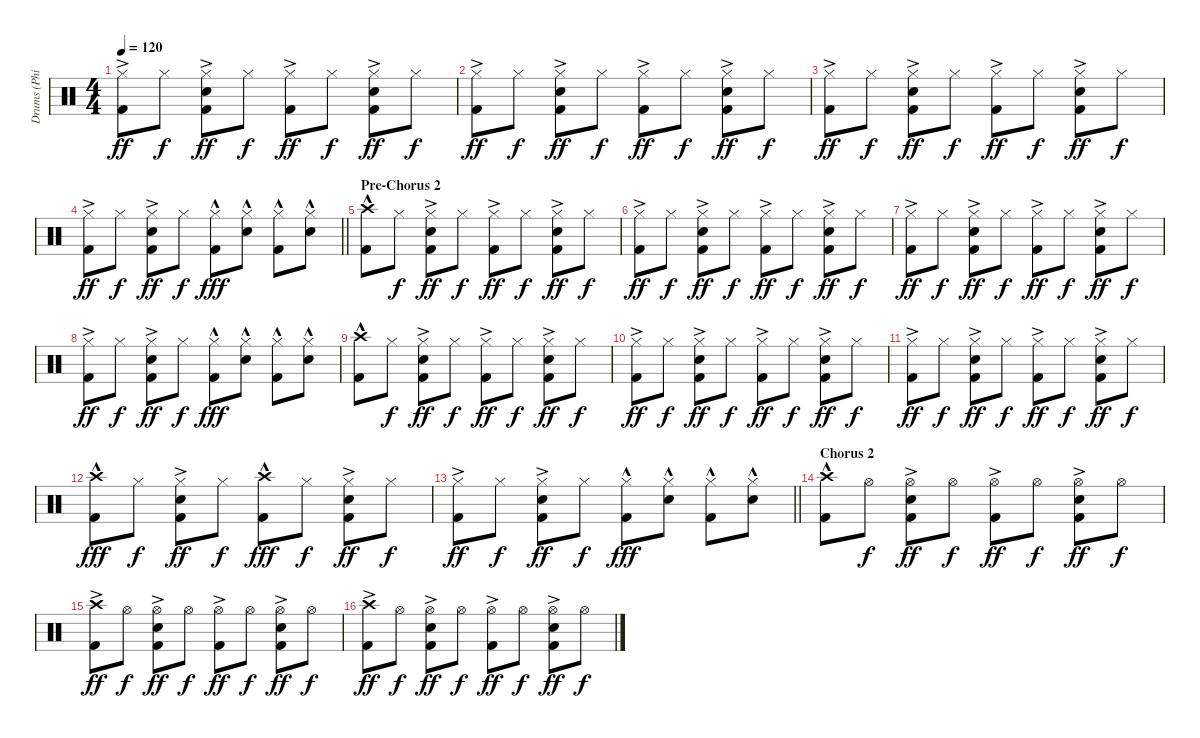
\track ("Drums (Phil Rudd)" "Drums (Phi") {instrument percussion}
\staff {score}
\articulation defaults
\ts (4 4)
\tempo 120
\clef neutral
\ks c
("Hi-Hat (closed)"{ac} "Kick (hit) 2").8{dy ff} "Hi-Hat (closed)".8{dy f} ("Kick (hit) 2" "Snare (hit) 2" "Hi-Hat (closed)"{ac}).8{dy ff} "Hi-Hat (closed)".8{dy f} ("Kick (hit) 2" "Hi-Hat (closed)"{ac}).8{dy ff} "Hi-Hat (closed)".8{dy f} ("Kick (hit) 2" "Snare (hit) 2" "Hi-Hat (closed)"{ac}).8{dy ff} "Hi-Hat (closed)".8{dy f} |
("Hi-Hat (closed)"{ac} "Kick (hit) 2").8{dy ff} "Hi-Hat (closed)".8{dy f} ("Kick (hit) 2" "Snare (hit) 2" "Hi-Hat (closed)"{ac}).8{dy ff} "Hi-Hat (closed)".8{dy f} ("Kick (hit) 2" "Hi-Hat (closed)"{ac}).8{dy ff} "Hi-Hat (closed)".8{dy f} ("Kick (hit) 2" "Snare (hit) 2" "Hi-Hat (closed)"{ac}).8{dy ff} "Hi-Hat (closed)".8{dy f} |
("Hi-Hat (closed)"{ac} "Kick (hit) 2").8{dy ff} "Hi-Hat (closed)".8{dy f} ("Kick (hit) 2" "Snare (hit) 2" "Hi-Hat (closed)"{ac}).8{dy ff} "Hi-Hat (closed)".8{dy f} ("Kick (hit) 2" "Hi-Hat (closed)"{ac}).8{dy ff} "Hi-Hat (closed)".8{dy f} ("Kick (hit) 2" "Snare (hit) 2" "Hi-Hat (closed)"{ac}).8{dy ff} "Hi-Hat (closed)".8{dy f} |
\barLineRight lightlight
("Hi-Hat (closed)"{ac} "Kick (hit) 2").8{dy ff} "Hi-Hat (closed)".8{dy f} ("Kick (hit) 2" "Snare (hit) 2" "Hi-Hat (closed)"{ac}).8{dy ff} "Hi-Hat (closed)".8{dy f} ("Kick (hit) 2" "Hi-Hat (closed)"{hac}).8{dy fff} ("Snare (hit) 2" "Hi-Hat (closed)"{hac}).8 ("Kick (hit) 2" "Hi-Hat (closed)"{hac}).8 ("Snare (hit) 2" "Hi-Hat (closed)"{hac}).8 |
\section ("" "Pre-Chorus 2")
("Kick (hit) 2" "Crash high (hit)"{hac}).8 "Hi-Hat (closed)".8{dy f} ("Kick (hit) 2" "Snare (hit) 2" "Hi-Hat (closed)"{ac}).8{dy ff} "Hi-Hat (closed)".8{dy f} ("Hi-Hat (closed)"{ac} "Kick (hit) 2").8{dy ff} "Hi-Hat (closed)".8{dy f} ("Kick (hit) 2" "Snare (hit) 2" "Hi-Hat (closed)"{ac}).8{dy ff} "Hi-Hat (closed)".8{dy f} |
("Hi-Hat (closed)"{ac} "Kick (hit) 2").8{dy ff} "Hi-Hat (closed)".8{dy f} ("Kick (hit) 2" "Snare (hit) 2" "Hi-Hat (closed)"{ac}).8{dy ff} "Hi-Hat (closed)".8{dy f} ("Kick (hit) 2" "Hi-Hat (closed)"{ac}).8{dy ff} "Hi-Hat (closed)".8{dy f} ("Kick (hit) 2" "Snare (hit) 2" "Hi-Hat (closed)"{ac}).8{dy ff} "Hi-Hat (closed)".8{dy f} |
("Hi-Hat (closed)"{ac} "Kick (hit) 2").8{dy ff} "Hi-Hat (closed)".8{dy f} ("Kick (hit) 2" "Snare (hit) 2" "Hi-Hat (closed)"{ac}).8{dy ff} "Hi-Hat (closed)".8{dy f} ("Kick (hit) 2" "Hi-Hat (closed)"{ac}).8{dy ff} "Hi-Hat (closed)".8{dy f} ("Kick (hit) 2" "Snare (hit) 2" "Hi-Hat (closed)"{ac}).8{dy ff} "Hi-Hat (closed)".8{dy f} |
("Hi-Hat (closed)"{ac} "Kick (hit) 2").8{dy ff} "Hi-Hat (closed)".8{dy f} ("Kick (hit) 2" "Snare (hit) 2" "Hi-Hat (closed)"{ac}).8{dy ff} "Hi-Hat (closed)".8{dy f} ("Kick (hit) 2" "Hi-Hat (closed)"{hac}).8{dy fff} ("Snare (hit) 2" "Hi-Hat (closed)"{hac}).8 ("Kick (hit) 2" "Hi-Hat (closed)"{hac}).8 ("Snare (hit) 2" "Hi-Hat (closed)"{hac}).8 |
("Kick (hit) 2" "Crash high (hit)"{hac}).8 "Hi-Hat (closed)".8{dy f} ("Kick (hit) 2" "Snare (hit) 2" "Hi-Hat (closed)"{ac}).8{dy ff} "Hi-Hat (closed)".8{dy f} ("Hi-Hat (closed)"{ac} "Kick (hit) 2").8{dy ff} "Hi-Hat (closed)".8{dy f} ("Kick (hit) 2" "Snare (hit) 2" "Hi-Hat (closed)"{ac}).8{dy ff} "Hi-Hat (closed)".8{dy f} |
("Hi-Hat (closed)"{ac} "Kick (hit) 2").8{dy ff} "Hi-Hat (closed)".8{dy f} ("Kick (hit) 2" "Snare (hit) 2" "Hi-Hat (closed)"{ac}).8{dy ff} "Hi-Hat (closed)".8{dy f} ("Kick (hit) 2" "Hi-Hat (closed)"{ac}).8{dy ff} "Hi-Hat (closed)".8{dy f} ("Kick (hit) 2" "Snare (hit) 2" "Hi-Hat (closed)"{ac}).8{dy ff} "Hi-Hat (closed)".8{dy f} |
("Hi-Hat (closed)"{ac} "Kick (hit) 2").8{dy ff} "Hi-Hat (closed)".8{dy f} ("Kick (hit) 2" "Snare (hit) 2" "Hi-Hat (closed)"{ac}).8{dy ff} "Hi-Hat (closed)".8{dy f} ("Kick (hit) 2" "Hi-Hat (closed)"{ac}).8{dy ff} "Hi-Hat (closed)".8{dy f} ("Kick (hit) 2" "Snare (hit) 2" "Hi-Hat (closed)"{ac}).8{dy ff} "Hi-Hat (closed)".8{dy f} |
("Kick (hit) 2" "Crash high (hit)"{hac}).8{dy fff} "Hi-Hat (closed)".8{dy f} ("Kick (hit) 2" "Snare (hit) 2" "Hi-Hat (closed)"{ac}).8{dy ff} "Hi-Hat (closed)".8{dy f} ("Crash high (hit)"{hac} "Kick (hit) 2").8{dy fff} "Hi-Hat (closed)".8{dy f} ("Kick (hit) 2" "Snare (hit) 2" "Hi-Hat (closed)"{ac}).8{dy ff} "Hi-Hat (closed)".8{dy f} |
\barLineRight lightlight
("Hi-Hat (closed)"{ac} "Kick (hit) 2").8{dy ff} "Hi-Hat (closed)".8{dy f} ("Kick (hit) 2" "Snare (hit) 2" "Hi-Hat (closed)"{ac}).8{dy ff} "Hi-Hat (closed)".8{dy f} ("Kick (hit) 2" "Hi-Hat (closed)"{hac}).8{dy fff} ("Snare (hit) 2" "Hi-Hat (closed)"{hac}).8 ("Kick (hit) 2" "Hi-Hat (closed)"{hac}).8 ("Snare (hit) 2" "Hi-Hat (closed)"{hac}).8 |
\section ("" "Chorus 2")
("Crash high (hit)"{hac} "Kick (hit) 2").8 "Hi-Hat (open)".8{dy f} ("Snare (hit) 2" "Hi-Hat (open)"{ac} "Kick (hit) 2").8{dy ff} "Hi-Hat (open)".8{dy f} ("Hi-Hat (open)"{ac} "Kick (hit) 2").8{dy ff} "Hi-Hat (open)".8{dy f} ("Hi-Hat (open)"{ac} "Snare (hit) 2" "Kick (hit) 2").8{dy ff} "Hi-Hat (open)".8{dy f} |
("Crash high (hit)"{ac} "Kick (hit) 2").8{dy ff} "Hi-Hat (open)".8{dy f} ("Snare (hit) 2" "Hi-Hat (open)"{ac} "Kick (hit) 2").8{dy ff} "Hi-Hat (open)".8{dy f} ("Hi-Hat (open)"{ac} "Kick (hit) 2").8{dy ff} "Hi-Hat (open)".8{dy f} ("Hi-Hat (open)"{ac} "Snare (hit) 2" "Kick (hit) 2").8{dy ff} "Hi-Hat (open)".8{dy f} |
("Crash high (hit)"{ac} "Kick (hit) 2").8{dy ff} "Hi-Hat (open)".8{dy f} ("Snare (hit) 2" "Hi-Hat (open)"{ac} "Kick (hit) 2").8{dy ff} "Hi-Hat (open)".8{dy f} ("Hi-Hat (open)"{ac} "Kick (hit) 2").8{dy ff} "Hi-Hat (open)".8{dy f} ("Hi-Hat (open)"{ac} "Snare (hit) 2" "Kick (hit) 2").8{dy ff} "Hi-Hat (open)".8{dy f}
